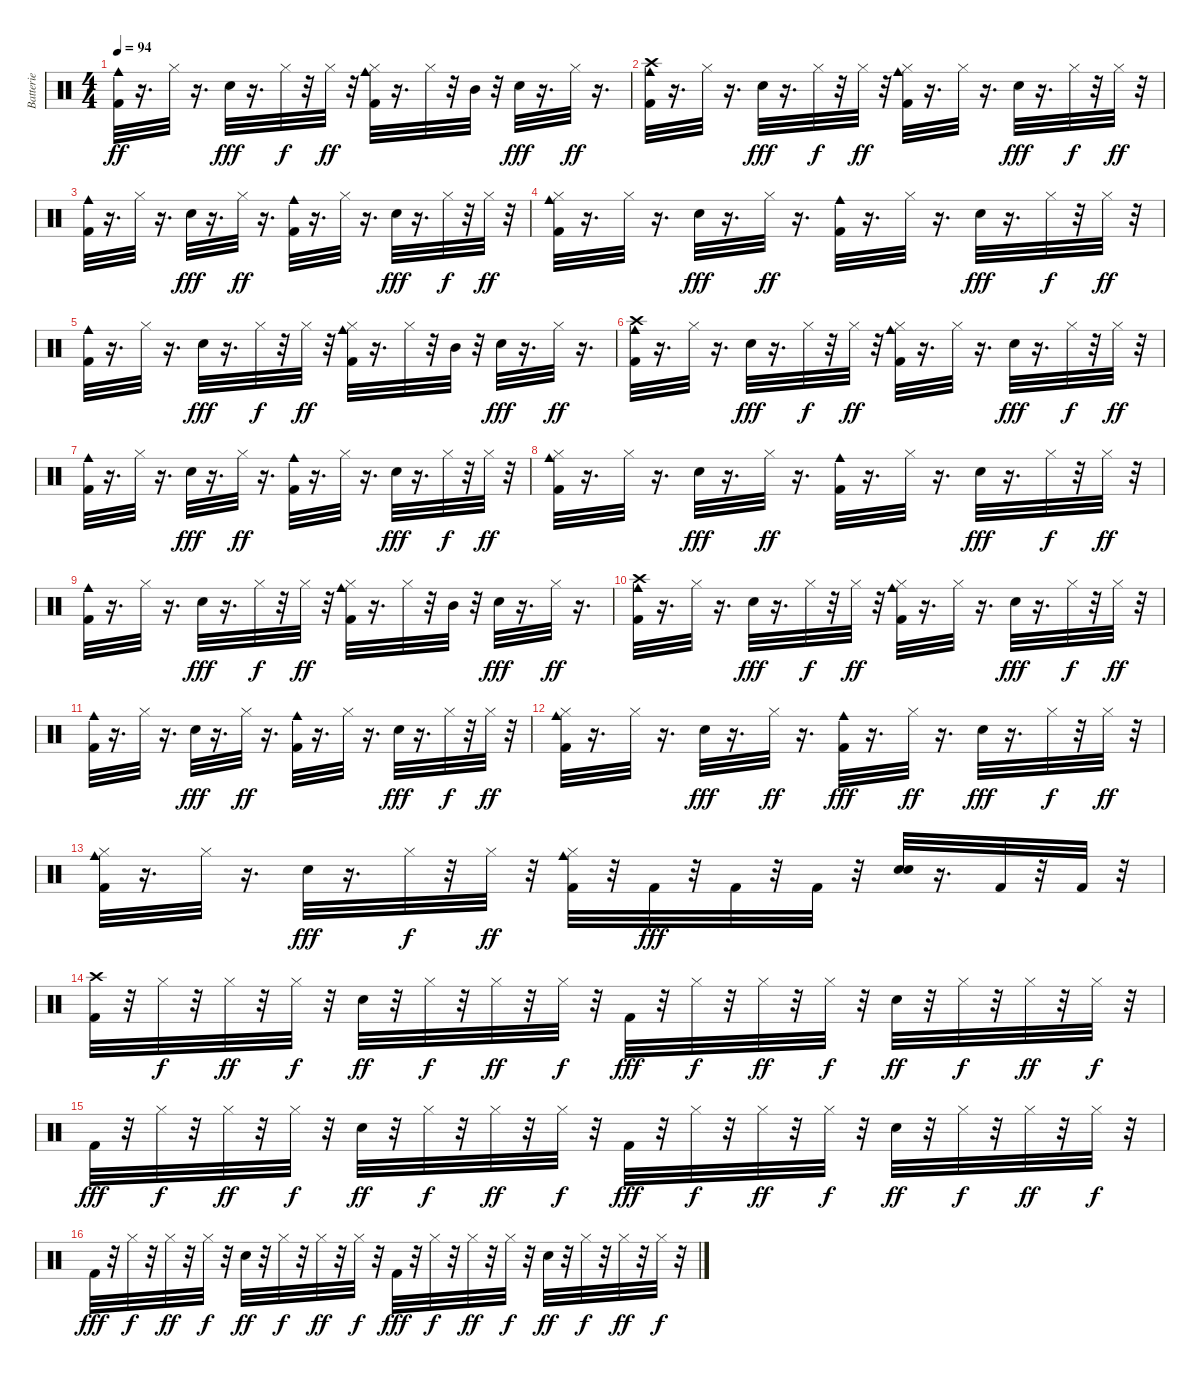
\track ("Batterie" "Batterie") {instrument percussion}
\staff {score}
\articulation defaults
\ts (4 4)
\tempo 94
\clef neutral
\ks c
("Kick (hit) 2" "Cowbell medium (hit)").32{dy ff} r.16{d} "Hi-Hat (closed)".32 r.16{d} "Hand Clap (hit)".32{dy fff} r.16{d} "Hi-Hat (closed)".32{dy f} r.32 "Hi-Hat (closed)".32{dy ff} r.32 ("Kick (hit) 2" "Hi-Hat (closed)" "Cowbell medium (hit)").32 r.16{d} "Hi-Hat (closed)".32 r.32 "Mid Tom (hit)".32 r.32 "Hand Clap (hit)".32{dy fff} r.16{d} "Hi-Hat (closed)".32{dy ff} r.16{d} |
("Kick (hit) 2" "Crash high (hit)" "Cowbell medium (hit)").32 r.16{d} "Hi-Hat (closed)".32 r.16{d} "Hand Clap (hit)".32{dy fff} r.16{d} "Hi-Hat (closed)".32{dy f} r.32 "Hi-Hat (closed)".32{dy ff} r.32 ("Kick (hit) 2" "Hi-Hat (closed)" "Cowbell medium (hit)").32 r.16{d} "Hi-Hat (closed)".32 r.16{d} "Hand Clap (hit)".32{dy fff} r.16{d} "Hi-Hat (closed)".32{dy f} r.32 "Hi-Hat (closed)".32{dy ff} r.32 |
("Kick (hit) 2" "Cowbell medium (hit)").32 r.16{d} "Hi-Hat (closed)".32 r.16{d} "Hand Clap (hit)".32{dy fff} r.16{d} "Hi-Hat (closed)".32{dy ff} r.16{d} ("Kick (hit) 2" "Cowbell medium (hit)").32 r.16{d} "Hi-Hat (closed)".32 r.16{d} "Hand Clap (hit)".32{dy fff} r.16{d} "Hi-Hat (closed)".32{dy f} r.32 "Hi-Hat (closed)".32{dy ff} r.32 |
("Kick (hit) 2" "Hi-Hat (closed)" "Cowbell medium (hit)").32 r.16{d} "Hi-Hat (closed)".32 r.16{d} "Hand Clap (hit)".32{dy fff} r.16{d} "Hi-Hat (closed)".32{dy ff} r.16{d} ("Kick (hit) 2" "Cowbell medium (hit)").32 r.16{d} "Hi-Hat (closed)".32 r.16{d} "Hand Clap (hit)".32{dy fff} r.16{d} "Hi-Hat (closed)".32{dy f} r.32 "Hi-Hat (closed)".32{dy ff} r.32 |
("Kick (hit) 2" "Cowbell medium (hit)").32 r.16{d} "Hi-Hat (closed)".32 r.16{d} "Hand Clap (hit)".32{dy fff} r.16{d} "Hi-Hat (closed)".32{dy f} r.32 "Hi-Hat (closed)".32{dy ff} r.32 ("Kick (hit) 2" "Hi-Hat (closed)" "Cowbell medium (hit)").32 r.16{d} "Hi-Hat (closed)".32 r.32 "Mid Tom (hit)".32 r.32 "Hand Clap (hit)".32{dy fff} r.16{d} "Hi-Hat (closed)".32{dy ff} r.16{d} |
("Kick (hit) 2" "Crash high (hit)" "Cowbell medium (hit)").32 r.16{d} "Hi-Hat (closed)".32 r.16{d} "Hand Clap (hit)".32{dy fff} r.16{d} "Hi-Hat (closed)".32{dy f} r.32 "Hi-Hat (closed)".32{dy ff} r.32 ("Kick (hit) 2" "Hi-Hat (closed)" "Cowbell medium (hit)").32 r.16{d} "Hi-Hat (closed)".32 r.16{d} "Hand Clap (hit)".32{dy fff} r.16{d} "Hi-Hat (closed)".32{dy f} r.32 "Hi-Hat (closed)".32{dy ff} r.32 |
("Kick (hit) 2" "Cowbell medium (hit)").32 r.16{d} "Hi-Hat (closed)".32 r.16{d} "Hand Clap (hit)".32{dy fff} r.16{d} "Hi-Hat (closed)".32{dy ff} r.16{d} ("Kick (hit) 2" "Cowbell medium (hit)").32 r.16{d} "Hi-Hat (closed)".32 r.16{d} "Hand Clap (hit)".32{dy fff} r.16{d} "Hi-Hat (closed)".32{dy f} r.32 "Hi-Hat (closed)".32{dy ff} r.32 |
("Kick (hit) 2" "Hi-Hat (closed)" "Cowbell medium (hit)").32 r.16{d} "Hi-Hat (closed)".32 r.16{d} "Hand Clap (hit)".32{dy fff} r.16{d} "Hi-Hat (closed)".32{dy ff} r.16{d} ("Kick (hit) 2" "Cowbell medium (hit)").32 r.16{d} "Hi-Hat (closed)".32 r.16{d} "Hand Clap (hit)".32{dy fff} r.16{d} "Hi-Hat (closed)".32{dy f} r.32 "Hi-Hat (closed)".32{dy ff} r.32 |
("Kick (hit) 2" "Cowbell medium (hit)").32 r.16{d} "Hi-Hat (closed)".32 r.16{d} "Hand Clap (hit)".32{dy fff} r.16{d} "Hi-Hat (closed)".32{dy f} r.32 "Hi-Hat (closed)".32{dy ff} r.32 ("Kick (hit) 2" "Hi-Hat (closed)" "Cowbell medium (hit)").32 r.16{d} "Hi-Hat (closed)".32 r.32 "Mid Tom (hit)".32 r.32 "Hand Clap (hit)".32{dy fff} r.16{d} "Hi-Hat (closed)".32{dy ff} r.16{d} |
("Kick (hit) 2" "Crash high (hit)" "Cowbell medium (hit)").32 r.16{d} "Hi-Hat (closed)".32 r.16{d} "Hand Clap (hit)".32{dy fff} r.16{d} "Hi-Hat (closed)".32{dy f} r.32 "Hi-Hat (closed)".32{dy ff} r.32 ("Kick (hit) 2" "Hi-Hat (closed)" "Cowbell medium (hit)").32 r.16{d} "Hi-Hat (closed)".32 r.16{d} "Hand Clap (hit)".32{dy fff} r.16{d} "Hi-Hat (closed)".32{dy f} r.32 "Hi-Hat (closed)".32{dy ff} r.32 |
("Kick (hit) 2" "Cowbell medium (hit)").32 r.16{d} "Hi-Hat (closed)".32 r.16{d} "Hand Clap (hit)".32{dy fff} r.16{d} "Hi-Hat (closed)".32{dy ff} r.16{d} ("Kick (hit) 2" "Cowbell medium (hit)").32 r.16{d} "Hi-Hat (closed)".32 r.16{d} "Hand Clap (hit)".32{dy fff} r.16{d} "Hi-Hat (closed)".32{dy f} r.32 "Hi-Hat (closed)".32{dy ff} r.32 |
("Kick (hit) 2" "Hi-Hat (closed)" "Cowbell medium (hit)").32 r.16{d} "Hi-Hat (closed)".32 r.16{d} "Hand Clap (hit)".32{dy fff} r.16{d} "Hi-Hat (closed)".32{dy ff} r.16{d} ("Cowbell medium (hit)" "Kick (hit) 2").32{dy fff} r.16{d} "Hi-Hat (closed)".32{dy ff} r.16{d} "Hand Clap (hit)".32{dy fff} r.16{d} "Hi-Hat (closed)".32{dy f} r.32 "Hi-Hat (closed)".32{dy ff} r.32 |
("Kick (hit) 2" "Hi-Hat (closed)" "Cowbell medium (hit)").32 r.16{d} "Hi-Hat (closed)".32 r.16{d} "Hand Clap (hit)".32{dy fff} r.16{d} "Hi-Hat (closed)".32{dy f} r.32 "Hi-Hat (closed)".32{dy ff} r.32 ("Kick (hit) 2" "Hi-Hat (closed)" "Cowbell medium (hit)").32 r.32 "Kick (hit) 2".32{dy fff} r.32 "Kick (hit) 2".32 r.32 "Kick (hit) 2".32 r.32 ("Electric Snare (hit)" "Hand Clap (hit)").32 r.16{d} "Kick (hit) 2".32 r.32 "Kick (hit) 2".32 r.32 |
("Kick (hit) 2" "Crash high (hit)").32 r.32 "Hi-Hat (closed)".32{dy f} r.32 "Hi-Hat (closed)".32{dy ff} r.32 "Hi-Hat (closed)".32{dy f} r.32 "Electric Snare (hit)".32{dy ff} r.32 "Hi-Hat (closed)".32{dy f} r.32 "Hi-Hat (closed)".32{dy ff} r.32 "Hi-Hat (closed)".32{dy f} r.32 "Kick (hit) 2".32{dy fff} r.32 "Hi-Hat (closed)".32{dy f} r.32 "Hi-Hat (closed)".32{dy ff} r.32 "Hi-Hat (closed)".32{dy f} r.32 "Electric Snare (hit)".32{dy ff} r.32 "Hi-Hat (closed)".32{dy f} r.32 "Hi-Hat (closed)".32{dy ff} r.32 "Hi-Hat (closed)".32{dy f} r.32 |
"Kick (hit) 2".32{dy fff} r.32 "Hi-Hat (closed)".32{dy f} r.32 "Hi-Hat (closed)".32{dy ff} r.32 "Hi-Hat (closed)".32{dy f} r.32 "Electric Snare (hit)".32{dy ff} r.32 "Hi-Hat (closed)".32{dy f} r.32 "Hi-Hat (closed)".32{dy ff} r.32 "Hi-Hat (closed)".32{dy f} r.32 "Kick (hit) 2".32{dy fff} r.32 "Hi-Hat (closed)".32{dy f} r.32 "Hi-Hat (closed)".32{dy ff} r.32 "Hi-Hat (closed)".32{dy f} r.32 "Electric Snare (hit)".32{dy ff} r.32 "Hi-Hat (closed)".32{dy f} r.32 "Hi-Hat (closed)".32{dy ff} r.32 "Hi-Hat (closed)".32{dy f} r.32 |
"Kick (hit) 2".32{dy fff} r.32 "Hi-Hat (closed)".32{dy f} r.32 "Hi-Hat (closed)".32{dy ff} r.32 "Hi-Hat (closed)".32{dy f} r.32 "Electric Snare (hit)".32{dy ff} r.32 "Hi-Hat (closed)".32{dy f} r.32 "Hi-Hat (closed)".32{dy ff} r.32 "Hi-Hat (closed)".32{dy f} r.32 "Kick (hit) 2".32{dy fff} r.32 "Hi-Hat (closed)".32{dy f} r.32 "Hi-Hat (closed)".32{dy ff} r.32 "Hi-Hat (closed)".32{dy f} r.32 "Electric Snare (hit)".32{dy ff} r.32 "Hi-Hat (closed)".32{dy f} r.32 "Hi-Hat (closed)".32{dy ff} r.32 "Hi-Hat (closed)".32{dy f} r.32
